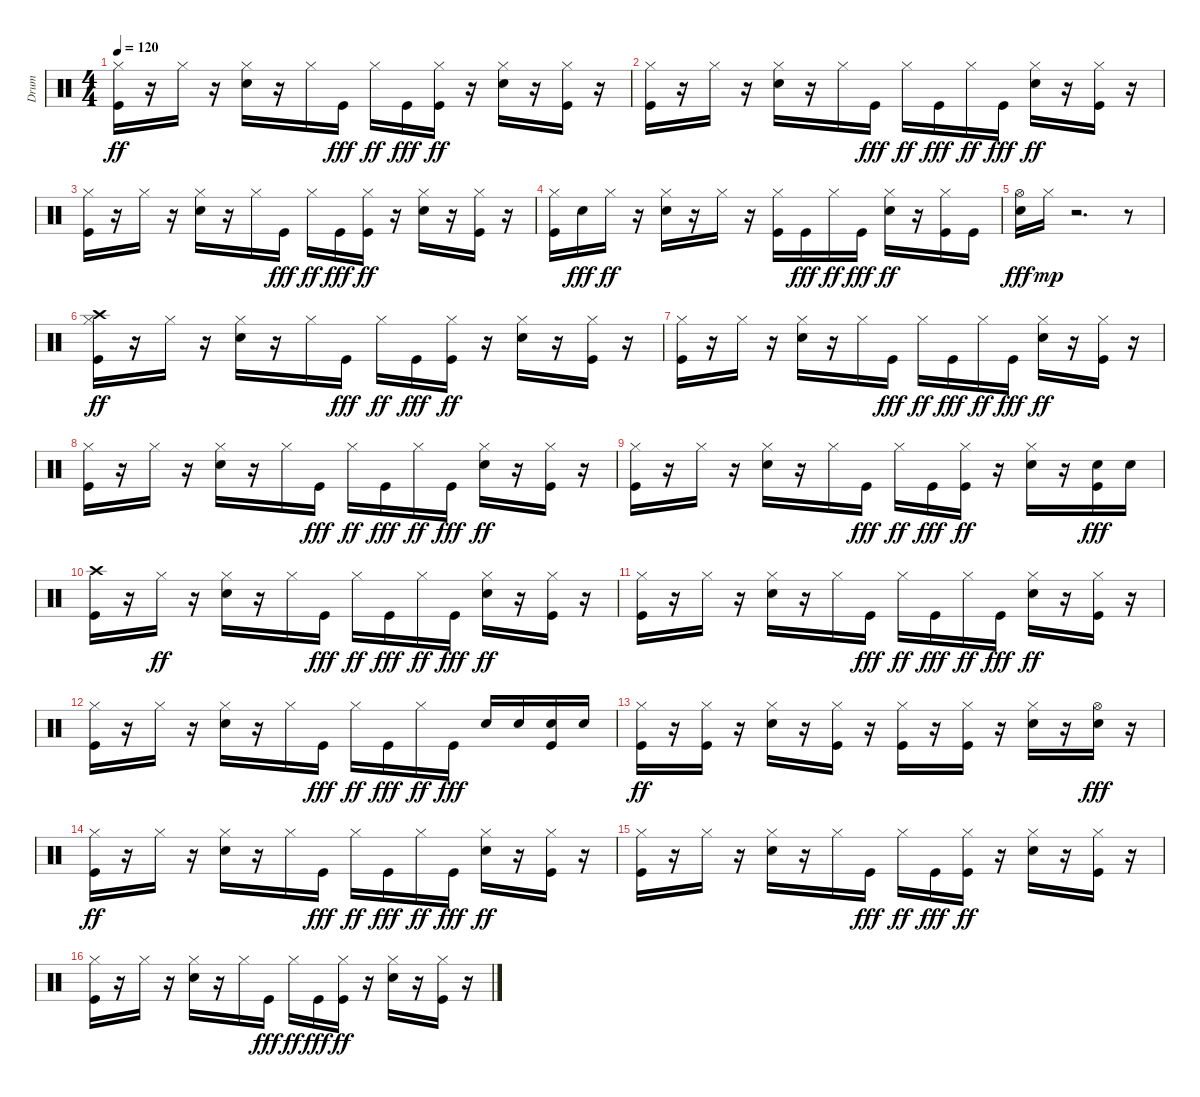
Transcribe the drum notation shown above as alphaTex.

\track ("Drum" "Drum") {instrument percussion}
\staff {score}
\articulation defaults
\ts (4 4)
\tempo 120
\clef neutral
\ks c
("Kick (hit)" "Hi-Hat (closed)").16{dy ff} r.16 "Hi-Hat (closed)".16 r.16 ("Electric Snare (hit)" "Hi-Hat (closed)").16 r.16 "Hi-Hat (closed)".16 "Kick (hit)".16{dy fff} "Hi-Hat (closed)".16{dy ff} "Kick (hit)".16{dy fff} ("Kick (hit)" "Hi-Hat (closed)").16{dy ff} r.16 ("Electric Snare (hit)" "Hi-Hat (closed)").16 r.16 ("Kick (hit)" "Hi-Hat (closed)").16 r.16 |
("Kick (hit)" "Hi-Hat (closed)").16 r.16 "Hi-Hat (closed)".16 r.16 ("Electric Snare (hit)" "Hi-Hat (closed)").16 r.16 "Hi-Hat (closed)".16 "Kick (hit)".16{dy fff} "Hi-Hat (closed)".16{dy ff} "Kick (hit)".16{dy fff} "Hi-Hat (closed)".16{dy ff} "Kick (hit)".16{dy fff} ("Electric Snare (hit)" "Hi-Hat (closed)").16{dy ff} r.16 ("Kick (hit)" "Hi-Hat (closed)").16 r.16 |
("Kick (hit)" "Hi-Hat (closed)").16 r.16 "Hi-Hat (closed)".16 r.16 ("Electric Snare (hit)" "Hi-Hat (closed)").16 r.16 "Hi-Hat (closed)".16 "Kick (hit)".16{dy fff} "Hi-Hat (closed)".16{dy ff} "Kick (hit)".16{dy fff} ("Kick (hit)" "Hi-Hat (closed)").16{dy ff} r.16 ("Electric Snare (hit)" "Hi-Hat (closed)").16 r.16 ("Kick (hit)" "Hi-Hat (closed)").16 r.16 |
("Kick (hit)" "Hi-Hat (closed)").16 "Electric Snare (hit)".16{dy fff} "Hi-Hat (closed)".16{dy ff} r.16 ("Electric Snare (hit)" "Hi-Hat (closed)").16 r.16 "Hi-Hat (closed)".16 r.16 ("Kick (hit)" "Hi-Hat (closed)").16 "Kick (hit)".16{dy fff} "Hi-Hat (closed)".16{dy ff} "Kick (hit)".16{dy fff} ("Electric Snare (hit)" "Hi-Hat (closed)").16{dy ff} r.16 ("Kick (hit)" "Hi-Hat (closed)").16 "Kick (hit)".16 |
("Hi-Hat (open)" "Electric Snare (hit)").16{dy fff} "Hi-Hat (closed)".16{dy mp} r.2{d} r.8 |
("Crash high (hit)" "Kick (hit)" "Hi-Hat (closed)").16{dy ff} r.16 "Hi-Hat (closed)".16 r.16 ("Electric Snare (hit)" "Hi-Hat (closed)").16 r.16 "Hi-Hat (closed)".16 "Kick (hit)".16{dy fff} "Hi-Hat (closed)".16{dy ff} "Kick (hit)".16{dy fff} ("Kick (hit)" "Hi-Hat (closed)").16{dy ff} r.16 ("Electric Snare (hit)" "Hi-Hat (closed)").16 r.16 ("Kick (hit)" "Hi-Hat (closed)").16 r.16 |
("Kick (hit)" "Hi-Hat (closed)").16 r.16 "Hi-Hat (closed)".16 r.16 ("Electric Snare (hit)" "Hi-Hat (closed)").16 r.16 "Hi-Hat (closed)".16 "Kick (hit)".16{dy fff} "Hi-Hat (closed)".16{dy ff} "Kick (hit)".16{dy fff} "Hi-Hat (closed)".16{dy ff} "Kick (hit)".16{dy fff} ("Electric Snare (hit)" "Hi-Hat (closed)").16{dy ff} r.16 ("Kick (hit)" "Hi-Hat (closed)").16 r.16 |
("Kick (hit)" "Hi-Hat (closed)").16 r.16 "Hi-Hat (closed)".16 r.16 ("Electric Snare (hit)" "Hi-Hat (closed)").16 r.16 "Hi-Hat (closed)".16 "Kick (hit)".16{dy fff} "Hi-Hat (closed)".16{dy ff} "Kick (hit)".16{dy fff} "Hi-Hat (closed)".16{dy ff} "Kick (hit)".16{dy fff} ("Electric Snare (hit)" "Hi-Hat (closed)").16{dy ff} r.16 ("Kick (hit)" "Hi-Hat (closed)").16 r.16 |
("Kick (hit)" "Hi-Hat (closed)").16 r.16 "Hi-Hat (closed)".16 r.16 ("Electric Snare (hit)" "Hi-Hat (closed)").16 r.16 "Hi-Hat (closed)".16 "Kick (hit)".16{dy fff} "Hi-Hat (closed)".16{dy ff} "Kick (hit)".16{dy fff} ("Kick (hit)" "Hi-Hat (closed)").16{dy ff} r.16 ("Electric Snare (hit)" "Hi-Hat (closed)").16 r.16 ("Electric Snare (hit)" "Kick (hit)").16{dy fff} "Electric Snare (hit)".16 |
("Crash high (hit)" "Kick (hit)").16 r.16 "Hi-Hat (closed)".16{dy ff} r.16 ("Electric Snare (hit)" "Hi-Hat (closed)").16 r.16 "Hi-Hat (closed)".16 "Kick (hit)".16{dy fff} "Hi-Hat (closed)".16{dy ff} "Kick (hit)".16{dy fff} "Hi-Hat (closed)".16{dy ff} "Kick (hit)".16{dy fff} ("Electric Snare (hit)" "Hi-Hat (closed)").16{dy ff} r.16 ("Kick (hit)" "Hi-Hat (closed)").16 r.16 |
("Kick (hit)" "Hi-Hat (closed)").16 r.16 "Hi-Hat (closed)".16 r.16 ("Electric Snare (hit)" "Hi-Hat (closed)").16 r.16 "Hi-Hat (closed)".16 "Kick (hit)".16{dy fff} "Hi-Hat (closed)".16{dy ff} "Kick (hit)".16{dy fff} "Hi-Hat (closed)".16{dy ff} "Kick (hit)".16{dy fff} ("Electric Snare (hit)" "Hi-Hat (closed)").16{dy ff} r.16 ("Kick (hit)" "Hi-Hat (closed)").16 r.16 |
("Kick (hit)" "Hi-Hat (closed)").16 r.16 "Hi-Hat (closed)".16 r.16 ("Electric Snare (hit)" "Hi-Hat (closed)").16 r.16 "Hi-Hat (closed)".16 "Kick (hit)".16{dy fff} "Hi-Hat (closed)".16{dy ff} "Kick (hit)".16{dy fff} "Hi-Hat (closed)".16{dy ff} "Kick (hit)".16{dy fff} "Electric Snare (hit)".16 "Electric Snare (hit)".16 ("Electric Snare (hit)" "Kick (hit)").16 "Electric Snare (hit)".16 |
("Kick (hit)" "Hi-Hat (closed)").16{dy ff} r.16 ("Kick (hit)" "Hi-Hat (closed)").16 r.16 ("Electric Snare (hit)" "Hi-Hat (closed)").16 r.16 ("Kick (hit)" "Hi-Hat (closed)").16 r.16 ("Kick (hit)" "Hi-Hat (closed)").16 r.16 ("Kick (hit)" "Hi-Hat (closed)").16 r.16 ("Electric Snare (hit)" "Hi-Hat (closed)").16 r.16 ("Hi-Hat (open)" "Electric Snare (hit)").16{dy fff} r.16 |
("Kick (hit)" "Hi-Hat (closed)").16{dy ff} r.16 "Hi-Hat (closed)".16 r.16 ("Electric Snare (hit)" "Hi-Hat (closed)").16 r.16 "Hi-Hat (closed)".16 "Kick (hit)".16{dy fff} "Hi-Hat (closed)".16{dy ff} "Kick (hit)".16{dy fff} "Hi-Hat (closed)".16{dy ff} "Kick (hit)".16{dy fff} ("Electric Snare (hit)" "Hi-Hat (closed)").16{dy ff} r.16 ("Kick (hit)" "Hi-Hat (closed)").16 r.16 |
("Kick (hit)" "Hi-Hat (closed)").16 r.16 "Hi-Hat (closed)".16 r.16 ("Electric Snare (hit)" "Hi-Hat (closed)").16 r.16 "Hi-Hat (closed)".16 "Kick (hit)".16{dy fff} "Hi-Hat (closed)".16{dy ff} "Kick (hit)".16{dy fff} ("Kick (hit)" "Hi-Hat (closed)").16{dy ff} r.16 ("Electric Snare (hit)" "Hi-Hat (closed)").16 r.16 ("Kick (hit)" "Hi-Hat (closed)").16 r.16 |
("Kick (hit)" "Hi-Hat (closed)").16 r.16 "Hi-Hat (closed)".16 r.16 ("Electric Snare (hit)" "Hi-Hat (closed)").16 r.16 "Hi-Hat (closed)".16 "Kick (hit)".16{dy fff} "Hi-Hat (closed)".16{dy ff} "Kick (hit)".16{dy fff} ("Kick (hit)" "Hi-Hat (closed)").16{dy ff} r.16 ("Electric Snare (hit)" "Hi-Hat (closed)").16 r.16 ("Kick (hit)" "Hi-Hat (closed)").16 r.16
